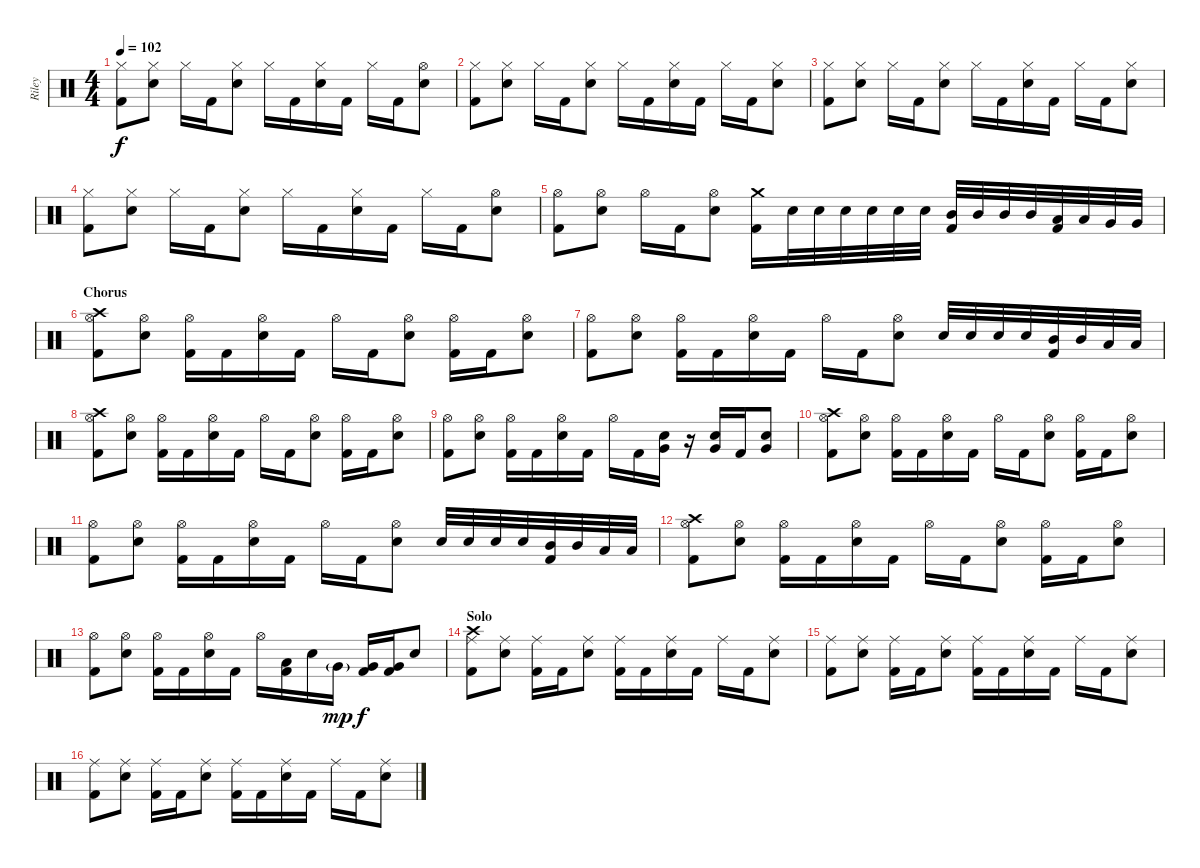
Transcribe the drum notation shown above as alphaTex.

\track ("Riley" "Riley") {instrument percussion}
\staff {score}
\articulation defaults
\ts (4 4)
\tempo 102
\clef neutral
\ks c
("Hi-Hat (closed)" "Kick (hit) 2").8{dy f} ("Hi-Hat (closed)" "Electric Snare (hit)").8 "Hi-Hat (closed)".16 "Kick (hit) 2".16 ("Hi-Hat (closed)" "Electric Snare (hit)").8 "Hi-Hat (closed)".16 "Kick (hit) 2".16 ("Hi-Hat (closed)" "Electric Snare (hit)").16 "Kick (hit) 2".16 "Hi-Hat (closed)".16 "Kick (hit) 2".16 ("Hi-Hat (open)" "Electric Snare (hit)").8 |
("Hi-Hat (closed)" "Kick (hit) 2").8 ("Hi-Hat (closed)" "Electric Snare (hit)").8 "Hi-Hat (closed)".16 "Kick (hit) 2".16 ("Hi-Hat (closed)" "Electric Snare (hit)").8 "Hi-Hat (closed)".16 "Kick (hit) 2".16 ("Hi-Hat (closed)" "Electric Snare (hit)").16 "Kick (hit) 2".16 "Hi-Hat (closed)".16 "Kick (hit) 2".16 ("Hi-Hat (closed)" "Electric Snare (hit)").8 |
("Hi-Hat (closed)" "Kick (hit) 2").8 ("Hi-Hat (closed)" "Electric Snare (hit)").8 "Hi-Hat (closed)".16 "Kick (hit) 2".16 ("Hi-Hat (closed)" "Electric Snare (hit)").8 "Hi-Hat (closed)".16 "Kick (hit) 2".16 ("Hi-Hat (closed)" "Electric Snare (hit)").16 "Kick (hit) 2".16 "Hi-Hat (closed)".16 "Kick (hit) 2".16 ("Hi-Hat (closed)" "Electric Snare (hit)").8 |
("Hi-Hat (closed)" "Kick (hit) 2").8 ("Hi-Hat (closed)" "Electric Snare (hit)").8 "Hi-Hat (closed)".16 "Kick (hit) 2".16 ("Hi-Hat (closed)" "Electric Snare (hit)").8 "Hi-Hat (closed)".16 "Kick (hit) 2".16 ("Hi-Hat (closed)" "Electric Snare (hit)").16 "Kick (hit) 2".16 "Hi-Hat (closed)".16 "Kick (hit) 2".16 ("Hi-Hat (open)" "Electric Snare (hit)").8 |
("Hi-Hat (open)" "Kick (hit) 2").8 ("Hi-Hat (open)" "Electric Snare (hit)").8 "Hi-Hat (open)".16 "Kick (hit) 2".16 ("Hi-Hat (open)" "Electric Snare (hit)").8 ("Crash medium (hit)" "Kick (hit) 2").16 "Electric Snare (hit)".32 "Electric Snare (hit)".32 "Electric Snare (hit)".32 "Electric Snare (hit)".32 "Electric Snare (hit)".32 "Electric Snare (hit)".32 ("Mid Tom (hit)" "Kick (hit) 2").32 "Mid Tom (hit)".32 "Mid Tom (hit)".32 "Mid Tom (hit)".32 ("Low Tom (hit)" "Kick (hit) 2").32 "Low Tom (hit)".32 "Very Low Tom (hit)".32 "Very Low Tom (hit)".32 |
\section ("" "Chorus")
("Crash high (hit)" "Hi-Hat (open)" "Kick (hit) 2").8 ("Hi-Hat (open)" "Electric Snare (hit)").8 ("Hi-Hat (open)" "Kick (hit) 2").16 "Kick (hit) 2".16 ("Hi-Hat (open)" "Electric Snare (hit)").16 "Kick (hit) 2".16 "Hi-Hat (open)".16 "Kick (hit) 2".16 ("Hi-Hat (open)" "Electric Snare (hit)").8 ("Hi-Hat (open)" "Kick (hit) 2").16 "Kick (hit) 2".16 ("Hi-Hat (open)" "Electric Snare (hit)").8 |
("Hi-Hat (open)" "Kick (hit) 2").8 ("Hi-Hat (open)" "Electric Snare (hit)").8 ("Hi-Hat (open)" "Kick (hit) 2").16 "Kick (hit) 2".16 ("Hi-Hat (open)" "Electric Snare (hit)").16 "Kick (hit) 2".16 "Hi-Hat (open)".16 "Kick (hit) 2".16 ("Hi-Hat (open)" "Electric Snare (hit)").8 "Electric Snare (hit)".32 "Electric Snare (hit)".32 "Electric Snare (hit)".32 "Electric Snare (hit)".32 ("Mid Tom (hit)" "Kick (hit) 2").32 "Mid Tom (hit)".32 "Low Tom (hit)".32 "Low Tom (hit)".32 |
("Crash high (hit)" "Hi-Hat (open)" "Kick (hit) 2").8 ("Hi-Hat (open)" "Electric Snare (hit)").8 ("Hi-Hat (open)" "Kick (hit) 2").16 "Kick (hit) 2".16 ("Hi-Hat (open)" "Electric Snare (hit)").16 "Kick (hit) 2".16 "Hi-Hat (open)".16 "Kick (hit) 2".16 ("Hi-Hat (open)" "Electric Snare (hit)").8 ("Hi-Hat (open)" "Kick (hit) 2").16 "Kick (hit) 2".16 ("Hi-Hat (open)" "Electric Snare (hit)").8 |
("Hi-Hat (open)" "Kick (hit) 2").8 ("Hi-Hat (open)" "Electric Snare (hit)").8 ("Hi-Hat (open)" "Kick (hit) 2").16 "Kick (hit) 2".16 ("Hi-Hat (open)" "Electric Snare (hit)").16 "Kick (hit) 2".16 "Hi-Hat (open)".16 "Kick (hit) 2".16 ("Very Low Tom (hit)" "Electric Snare (hit)").16 r.16 ("Very Low Tom (hit)" "Electric Snare (hit)").16 "Kick (hit) 2".16 ("Very Low Tom (hit)" "Electric Snare (hit)").8 |
("Crash high (hit)" "Hi-Hat (open)" "Kick (hit) 2").8 ("Hi-Hat (open)" "Electric Snare (hit)").8 ("Hi-Hat (open)" "Kick (hit) 2").16 "Kick (hit) 2".16 ("Hi-Hat (open)" "Electric Snare (hit)").16 "Kick (hit) 2".16 "Hi-Hat (open)".16 "Kick (hit) 2".16 ("Hi-Hat (open)" "Electric Snare (hit)").8 ("Hi-Hat (open)" "Kick (hit) 2").16 "Kick (hit) 2".16 ("Hi-Hat (open)" "Electric Snare (hit)").8 |
("Hi-Hat (open)" "Kick (hit) 2").8 ("Hi-Hat (open)" "Electric Snare (hit)").8 ("Hi-Hat (open)" "Kick (hit) 2").16 "Kick (hit) 2".16 ("Hi-Hat (open)" "Electric Snare (hit)").16 "Kick (hit) 2".16 "Hi-Hat (open)".16 "Kick (hit) 2".16 ("Hi-Hat (open)" "Electric Snare (hit)").8 "Electric Snare (hit)".32 "Electric Snare (hit)".32 "Electric Snare (hit)".32 "Electric Snare (hit)".32 ("Mid Tom (hit)" "Kick (hit) 2").32 "Mid Tom (hit)".32 "Low Tom (hit)".32 "Low Tom (hit)".32 |
("Crash high (hit)" "Hi-Hat (open)" "Kick (hit) 2").8 ("Hi-Hat (open)" "Electric Snare (hit)").8 ("Hi-Hat (open)" "Kick (hit) 2").16 "Kick (hit) 2".16 ("Hi-Hat (open)" "Electric Snare (hit)").16 "Kick (hit) 2".16 "Hi-Hat (open)".16 "Kick (hit) 2".16 ("Hi-Hat (open)" "Electric Snare (hit)").8 ("Hi-Hat (open)" "Kick (hit) 2").16 "Kick (hit) 2".16 ("Hi-Hat (open)" "Electric Snare (hit)").8 |
("Hi-Hat (open)" "Kick (hit) 2").8 ("Hi-Hat (open)" "Electric Snare (hit)").8 ("Hi-Hat (open)" "Kick (hit) 2").16 "Kick (hit) 2".16 ("Hi-Hat (open)" "Electric Snare (hit)").16 "Kick (hit) 2".16 "Hi-Hat (open)".16 ("Low Tom (hit)" "Kick (hit) 2").16 "Electric Snare (hit)".16 "Very Low Tom (hit)"{g}.16{dy mp} ("Very Low Tom (hit)" "Kick (hit) 2").16{dy f} ("Very Low Tom (hit)" "Kick (hit) 2").16 "Electric Snare (hit)".8 |
\section ("" "Solo")
("Crash high (hit)" "Ride (middle)" "Kick (hit) 2").8 ("Ride (middle)" "Electric Snare (hit)").8 ("Ride (middle)" "Kick (hit) 2").16 "Kick (hit) 2".16 ("Ride (middle)" "Electric Snare (hit)").8 ("Ride (middle)" "Kick (hit) 2").16 "Kick (hit) 2".16 ("Ride (middle)" "Electric Snare (hit)").16 "Kick (hit) 2".16 "Ride (middle)".16 "Kick (hit) 2".16 ("Ride (middle)" "Electric Snare (hit)").8 |
("Ride (middle)" "Kick (hit) 2").8 ("Ride (middle)" "Electric Snare (hit)").8 ("Ride (middle)" "Kick (hit) 2").16 "Kick (hit) 2".16 ("Ride (middle)" "Electric Snare (hit)").8 ("Ride (middle)" "Kick (hit) 2").16 "Kick (hit) 2".16 ("Ride (middle)" "Electric Snare (hit)").16 "Kick (hit) 2".16 "Ride (middle)".16 "Kick (hit) 2".16 ("Ride (middle)" "Electric Snare (hit)").8 |
("Ride (middle)" "Kick (hit) 2").8 ("Ride (middle)" "Electric Snare (hit)").8 ("Ride (middle)" "Kick (hit) 2").16 "Kick (hit) 2".16 ("Ride (middle)" "Electric Snare (hit)").8 ("Ride (middle)" "Kick (hit) 2").16 "Kick (hit) 2".16 ("Ride (middle)" "Electric Snare (hit)").16 "Kick (hit) 2".16 "Ride (middle)".16 "Kick (hit) 2".16 ("Ride (middle)" "Electric Snare (hit)").8
